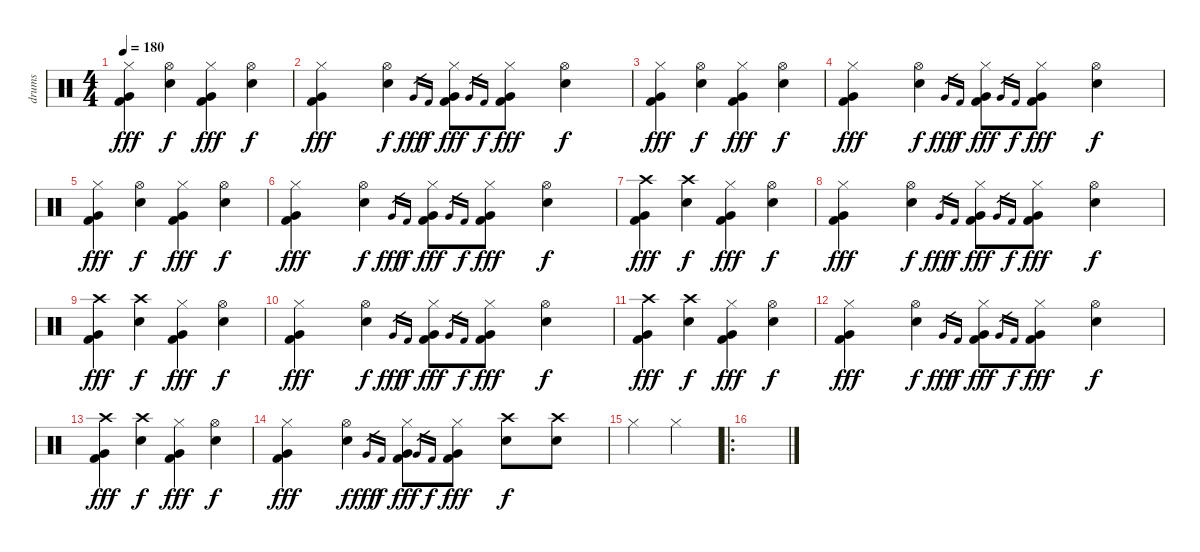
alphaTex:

\track ("drums" "drums") {instrument percussion}
\staff {score}
\articulation defaults
\ts (4 4)
\tempo 180
\clef neutral
\ks c
("Hi-Hat (closed)" "Very Low Tom (hit)" "Kick (hit) 2").4{dy fff} ("Hi-Hat (open)" "Electric Snare (hit)").4{dy f} ("Hi-Hat (closed)" "Very Low Tom (hit)" "Kick (hit) 2").4{dy fff} ("Hi-Hat (open)" "Electric Snare (hit)").4{dy f} |
("Hi-Hat (closed)" "Very Low Tom (hit)" "Kick (hit) 2").4{dy fff} ("Hi-Hat (open)" "Electric Snare (hit)").4{dy f} "Very Low Tom (hit)".16{gr dy fff} "Kick (hit) 2".16{gr dy f} ("Hi-Hat (closed)" "Very Low Tom (hit)" "Kick (hit) 2").8{dy fff} "Very Low Tom (hit)".16{gr} "Kick (hit) 2".16{gr dy f} ("Hi-Hat (closed)" "Very Low Tom (hit)" "Kick (hit) 2").8{dy fff} ("Hi-Hat (open)" "Electric Snare (hit)").4{dy f} |
("Hi-Hat (closed)" "Very Low Tom (hit)" "Kick (hit) 2").4{dy fff} ("Hi-Hat (open)" "Electric Snare (hit)").4{dy f} ("Hi-Hat (closed)" "Very Low Tom (hit)" "Kick (hit) 2").4{dy fff} ("Hi-Hat (open)" "Electric Snare (hit)").4{dy f} |
("Hi-Hat (closed)" "Very Low Tom (hit)" "Kick (hit) 2").4{dy fff} ("Hi-Hat (open)" "Electric Snare (hit)").4{dy f} "Very Low Tom (hit)".16{gr dy fff} "Kick (hit) 2".16{gr dy f} ("Hi-Hat (closed)" "Very Low Tom (hit)" "Kick (hit) 2").8{dy fff} "Very Low Tom (hit)".16{gr} "Kick (hit) 2".16{gr dy f} ("Hi-Hat (closed)" "Very Low Tom (hit)" "Kick (hit) 2").8{dy fff} ("Hi-Hat (open)" "Electric Snare (hit)").4{dy f} |
("Hi-Hat (closed)" "Very Low Tom (hit)" "Kick (hit) 2").4{dy fff} ("Hi-Hat (open)" "Electric Snare (hit)").4{dy f} ("Hi-Hat (closed)" "Very Low Tom (hit)" "Kick (hit) 2").4{dy fff} ("Hi-Hat (open)" "Electric Snare (hit)").4{dy f} |
("Hi-Hat (closed)" "Very Low Tom (hit)" "Kick (hit) 2").4{dy fff} ("Hi-Hat (open)" "Electric Snare (hit)").4{dy f} "Very Low Tom (hit)".16{gr dy fff} "Kick (hit) 2".16{gr dy f} ("Hi-Hat (closed)" "Very Low Tom (hit)" "Kick (hit) 2").8{dy fff} "Very Low Tom (hit)".16{gr} "Kick (hit) 2".16{gr dy f} ("Hi-Hat (closed)" "Very Low Tom (hit)" "Kick (hit) 2").8{dy fff} ("Hi-Hat (open)" "Electric Snare (hit)").4{dy f} |
("Crash high (hit)" "Very Low Tom (hit)" "Kick (hit) 2").4{dy fff} ("Crash high (hit)" "Electric Snare (hit)").4{dy f} ("Hi-Hat (closed)" "Very Low Tom (hit)" "Kick (hit) 2").4{dy fff} ("Hi-Hat (open)" "Electric Snare (hit)").4{dy f} |
("Hi-Hat (closed)" "Very Low Tom (hit)" "Kick (hit) 2").4{dy fff} ("Hi-Hat (open)" "Electric Snare (hit)").4{dy f} "Very Low Tom (hit)".16{gr dy fff} "Kick (hit) 2".16{gr dy f} ("Hi-Hat (closed)" "Very Low Tom (hit)" "Kick (hit) 2").8{dy fff} "Very Low Tom (hit)".16{gr} "Kick (hit) 2".16{gr dy f} ("Hi-Hat (closed)" "Very Low Tom (hit)" "Kick (hit) 2").8{dy fff} ("Hi-Hat (open)" "Electric Snare (hit)").4{dy f} |
("Crash high (hit)" "Very Low Tom (hit)" "Kick (hit) 2").4{dy fff} ("Crash high (hit)" "Electric Snare (hit)").4{dy f} ("Hi-Hat (closed)" "Very Low Tom (hit)" "Kick (hit) 2").4{dy fff} ("Hi-Hat (open)" "Electric Snare (hit)").4{dy f} |
("Hi-Hat (closed)" "Very Low Tom (hit)" "Kick (hit) 2").4{dy fff} ("Hi-Hat (open)" "Electric Snare (hit)").4{dy f} "Very Low Tom (hit)".16{gr dy fff} "Kick (hit) 2".16{gr dy f} ("Hi-Hat (closed)" "Very Low Tom (hit)" "Kick (hit) 2").8{dy fff} "Very Low Tom (hit)".16{gr} "Kick (hit) 2".16{gr dy f} ("Hi-Hat (closed)" "Very Low Tom (hit)" "Kick (hit) 2").8{dy fff} ("Hi-Hat (open)" "Electric Snare (hit)").4{dy f} |
("Crash high (hit)" "Very Low Tom (hit)" "Kick (hit) 2").4{dy fff} ("Crash high (hit)" "Electric Snare (hit)").4{dy f} ("Hi-Hat (closed)" "Very Low Tom (hit)" "Kick (hit) 2").4{dy fff} ("Hi-Hat (open)" "Electric Snare (hit)").4{dy f} |
("Hi-Hat (closed)" "Very Low Tom (hit)" "Kick (hit) 2").4{dy fff} ("Hi-Hat (open)" "Electric Snare (hit)").4{dy f} "Very Low Tom (hit)".16{gr dy fff} "Kick (hit) 2".16{gr dy f} ("Hi-Hat (closed)" "Very Low Tom (hit)" "Kick (hit) 2").8{dy fff} "Very Low Tom (hit)".16{gr} "Kick (hit) 2".16{gr dy f} ("Hi-Hat (closed)" "Very Low Tom (hit)" "Kick (hit) 2").8{dy fff} ("Hi-Hat (open)" "Electric Snare (hit)").4{dy f} |
("Crash high (hit)" "Very Low Tom (hit)" "Kick (hit) 2").4{dy fff} ("Crash high (hit)" "Electric Snare (hit)").4{dy f} ("Hi-Hat (closed)" "Very Low Tom (hit)" "Kick (hit) 2").4{dy fff} ("Hi-Hat (open)" "Electric Snare (hit)").4{dy f} |
("Hi-Hat (closed)" "Very Low Tom (hit)" "Kick (hit) 2").4{dy fff} ("Hi-Hat (open)" "Electric Snare (hit)").4{dy f} "Very Low Tom (hit)".16{gr dy fff} "Kick (hit) 2".16{gr dy f} ("Hi-Hat (closed)" "Very Low Tom (hit)" "Kick (hit) 2").8{dy fff} "Very Low Tom (hit)".16{gr} "Kick (hit) 2".16{gr dy f} ("Hi-Hat (closed)" "Very Low Tom (hit)" "Kick (hit) 2").8{dy fff} ("Crash high (hit)" "Electric Snare (hit)").8{dy f} ("Crash high (hit)" "Electric Snare (hit)").8 |
"Hi-Hat (closed)".2 "Hi-Hat (closed)".2 |
\ro
